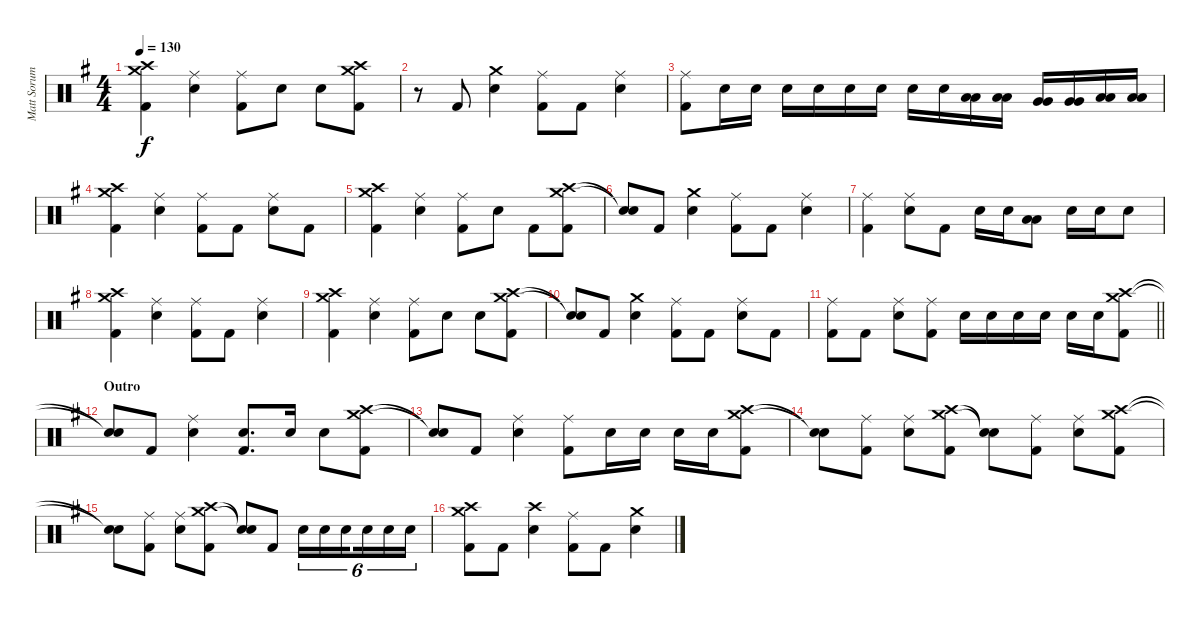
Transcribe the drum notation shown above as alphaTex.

\track ("Matt Sorum - Drums" "Matt Sorum") {instrument percussion}
\staff {score}
\articulation defaults
\ts (4 4)
\tempo 130
\clef neutral
\ks g
("Crash medium (hit)" "Crash high (hit)" "Kick (hit) 2").4{dy f} ("Ride (middle)" "Snare (hit) 2").4 ("Ride (middle)" "Kick (hit) 2").8 "Snare (hit) 2".8 "Snare (hit) 2".8 ("Crash medium (hit)" "Crash high (hit)" "Kick (hit) 2").8 |
r.8 "Kick (hit) 2".8 ("Crash medium (hit)" "Snare (hit) 2").4 ("Ride (middle)" "Kick (hit) 2").8 "Kick (hit) 2".8 ("Ride (middle)" "Snare (hit) 2").4 |
("Ride (middle)" "Kick (hit) 2").8 "Snare (hit) 2".16 "Snare (hit) 2".16 "Snare (hit) 2".16 "Snare (hit) 2".16 "Snare (hit) 2".16 "Snare (hit) 2".16 "Snare (hit) 2".16 "Snare (hit) 2".16 ("Low Tom (hit)" "Low Tom (hit)").16 ("Low Tom (hit)" "Low Tom (hit)").16 ("Very Low Tom (hit)" "Very Low Tom (hit)").16 ("Very Low Tom (hit)" "Very Low Tom (hit)").16 ("Low Floor Tom (hit)" "Low Floor Tom (hit)").16 ("Low Floor Tom (hit)" "Low Floor Tom (hit)").16 |
("Crash medium (hit)" "Crash high (hit)" "Kick (hit) 2").4 ("Ride (middle)" "Snare (hit) 2").4 ("Ride (middle)" "Kick (hit) 2").8 "Kick (hit) 2".8 ("Ride (middle)" "Snare (hit) 2").8 "Kick (hit) 2".8 |
("Crash medium (hit)" "Crash high (hit)" "Kick (hit) 2").4 ("Ride (middle)" "Snare (hit) 2").4 ("Ride (middle)" "Kick (hit) 2").8 "Snare (hit) 2".8 "Kick (hit) 2".8 ("Crash medium (hit)" "Crash high (hit)" "Kick (hit) 2").8 |
("Snare (hit)"{t} "Snare (hit)"{t}).8 "Kick (hit) 2".8 ("Crash medium (hit)" "Snare (hit) 2").4 ("Ride (middle)" "Kick (hit) 2").8 "Kick (hit) 2".8 ("Ride (middle)" "Snare (hit) 2").4 |
("Ride (middle)" "Kick (hit) 2").4 ("Ride (middle)" "Snare (hit) 2").8 "Kick (hit) 2".8 "Snare (hit) 2".16 "Snare (hit) 2".16 ("Low Tom (hit)" "Low Tom (hit)").8 "Snare (hit) 2".16 "Snare (hit) 2".16 "Snare (hit) 2".8 |
("Crash medium (hit)" "Crash high (hit)" "Kick (hit) 2").4 ("Ride (middle)" "Snare (hit) 2").4 ("Ride (middle)" "Kick (hit) 2").8 "Kick (hit) 2".8 ("Ride (middle)" "Snare (hit) 2").4 |
("Crash medium (hit)" "Crash high (hit)" "Kick (hit) 2").4 ("Ride (middle)" "Snare (hit) 2").4 ("Ride (middle)" "Kick (hit) 2").8 "Snare (hit) 2".8 "Snare (hit) 2".8 ("Crash medium (hit)" "Crash high (hit)" "Kick (hit) 2").8 |
("Snare (hit)"{t} "Snare (hit)"{t}).8 "Kick (hit) 2".8 ("Crash medium (hit)" "Snare (hit) 2").4 ("Ride (middle)" "Kick (hit) 2").8 "Kick (hit) 2".8 ("Ride (middle)" "Snare (hit) 2").8 "Kick (hit) 2".8 |
\barLineRight lightlight
("Ride (middle)" "Kick (hit) 2").8 "Kick (hit) 2".8 ("Ride (middle)" "Snare (hit) 2").8 ("Ride (middle)" "Kick (hit) 2").8 "Snare (hit) 2".16 "Snare (hit) 2".16 "Snare (hit) 2".16 "Snare (hit) 2".16 "Snare (hit) 2".16 "Snare (hit) 2".16 ("Crash medium (hit)" "Crash high (hit)" "Kick (hit) 2").8 |
\section ("" "Outro")
("Snare (hit)"{t} "Snare (hit)"{t}).8 "Kick (hit) 2".8 ("Ride (middle)" "Snare (hit) 2").4 ("Snare (hit) 2" "Kick (hit) 2").8{d} "Snare (hit) 2".16 "Snare (hit) 2".8 ("Crash medium (hit)" "Crash high (hit)" "Kick (hit) 2").8 |
("Snare (hit)"{t} "Snare (hit)"{t}).8 "Kick (hit) 2".8 ("Ride (middle)" "Snare (hit) 2").4 ("Ride (middle)" "Kick (hit) 2").8 "Snare (hit) 2".16 "Snare (hit) 2".16 "Snare (hit) 2".16 "Snare (hit) 2".16 ("Crash medium (hit)" "Crash high (hit)" "Kick (hit) 2").8 |
("Snare (hit)"{t} "Snare (hit)"{t}).8 ("Ride (middle)" "Kick (hit) 2").8 ("Ride (middle)" "Snare (hit) 2").8 ("Crash medium (hit)" "Crash high (hit)" "Kick (hit) 2").8 ("Snare (hit)"{t} "Snare (hit)"{t}).8 ("Ride (middle)" "Kick (hit) 2").8 ("Ride (middle)" "Snare (hit) 2").8 ("Crash medium (hit)" "Crash high (hit)" "Kick (hit) 2").8 |
("Snare (hit)"{t} "Snare (hit)"{t}).8 ("Ride (middle)" "Kick (hit) 2").8 ("Ride (middle)" "Snare (hit) 2").8 ("Crash medium (hit)" "Crash high (hit)" "Kick (hit) 2").8 ("Snare (hit)"{t} "Snare (hit)"{t}).8 "Kick (hit) 2".8 "Snare (hit) 2".16{tu (6 4)} "Snare (hit) 2".16{tu (6 4)} "Snare (hit) 2".16{tu (6 4) beam splitsecondary} "Snare (hit) 2".16{tu (6 4)} "Snare (hit) 2".16{tu (6 4)} "Snare (hit) 2".16{tu (6 4)} |
("Crash medium (hit)" "Crash high (hit)" "Kick (hit) 2").8 "Kick (hit) 2".8 ("Crash high (hit)" "Snare (hit) 2").4 ("Ride (middle)" "Kick (hit) 2").8 "Kick (hit) 2".8 ("Crash medium (hit)" "Snare (hit) 2").4
